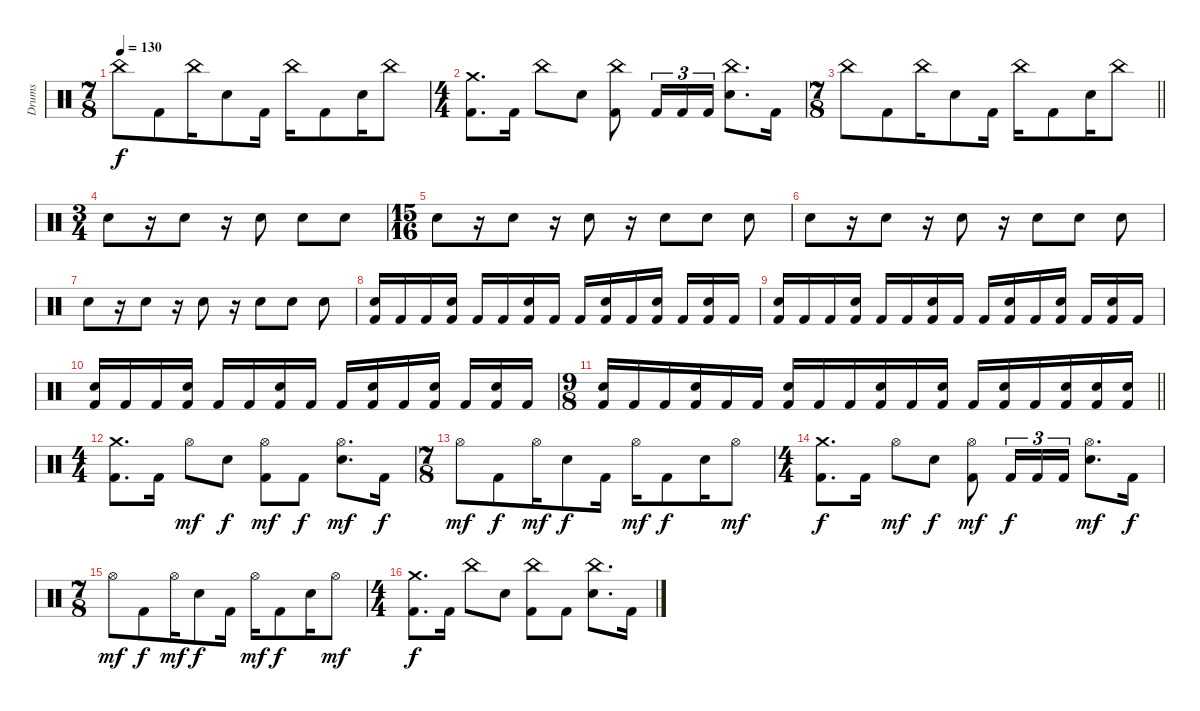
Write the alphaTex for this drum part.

\track ("Drums" "Drums") {instrument percussion}
\staff {score}
\articulation defaults
\ts (7 8)
\tempo 130
\clef neutral
\ks c "China (hit)".8{dy f} "Kick (hit) 2".8 "China (hit)".16 "Electric Snare (hit)".8 "Kick (hit) 2".16 "China (hit)".16 "Kick (hit) 2".8 "Electric Snare (hit)".16 "China (hit)".8
|
\ts (4 4)
("Kick (hit) 2" "Crash medium (hit)").8{d} "Kick (hit) 2".16 "China (hit)".8 "Electric Snare (hit)".8 ("Kick (hit) 2" "China (hit)").8 "Kick (hit) 2".16{tu (3 2)} "Kick (hit) 2".16{tu (3 2)} "Kick (hit) 2".16{tu (3 2)} ("China (hit)" "Electric Snare (hit)").8{d} "Kick (hit) 2".16 |
\ts (7 8)
\barLineRight lightlight "China (hit)".8 "Kick (hit) 2".8 "China (hit)".16 "Electric Snare (hit)".8 "Kick (hit) 2".16 "China (hit)".16 "Kick (hit) 2".8 "Electric Snare (hit)".16 "China (hit)".8
|
\ts (3 4)
"Electric Snare (hit)".8 r.16 "Electric Snare (hit)".8 r.16 "Electric Snare (hit)".8 "Electric Snare (hit)".8 "Electric Snare (hit)".8 |
\ts (15 16)
"Electric Snare (hit)".8 r.16 "Electric Snare (hit)".8 r.16 "Electric Snare (hit)".8 r.16 "Electric Snare (hit)".8 "Electric Snare (hit)".8 "Electric Snare (hit)".8 |
"Electric Snare (hit)".8 r.16 "Electric Snare (hit)".8 r.16 "Electric Snare (hit)".8 r.16 "Electric Snare (hit)".8 "Electric Snare (hit)".8 "Electric Snare (hit)".8 |
"Electric Snare (hit)".8 r.16 "Electric Snare (hit)".8 r.16 "Electric Snare (hit)".8 r.16 "Electric Snare (hit)".8 "Electric Snare (hit)".8 "Electric Snare (hit)".8 |
("Kick (hit) 2" "Electric Snare (hit)").16 "Kick (hit) 2".16 "Kick (hit) 2".16 ("Kick (hit) 2" "Electric Snare (hit)").16 "Kick (hit) 2".16 "Kick (hit) 2".16 ("Kick (hit) 2" "Electric Snare (hit)").16 "Kick (hit) 2".16 "Kick (hit) 2".16 ("Kick (hit) 2" "Electric Snare (hit)").16 "Kick (hit) 2".16 ("Kick (hit) 2" "Electric Snare (hit)").16 "Kick (hit) 2".16 ("Kick (hit) 2" "Electric Snare (hit)").16 "Kick (hit) 2".16 |
("Kick (hit) 2" "Electric Snare (hit)").16 "Kick (hit) 2".16 "Kick (hit) 2".16 ("Kick (hit) 2" "Electric Snare (hit)").16 "Kick (hit) 2".16 "Kick (hit) 2".16 ("Kick (hit) 2" "Electric Snare (hit)").16 "Kick (hit) 2".16 "Kick (hit) 2".16 ("Kick (hit) 2" "Electric Snare (hit)").16 "Kick (hit) 2".16 ("Kick (hit) 2" "Electric Snare (hit)").16 "Kick (hit) 2".16 ("Kick (hit) 2" "Electric Snare (hit)").16 "Kick (hit) 2".16 |
("Kick (hit) 2" "Electric Snare (hit)").16 "Kick (hit) 2".16 "Kick (hit) 2".16 ("Kick (hit) 2" "Electric Snare (hit)").16 "Kick (hit) 2".16 "Kick (hit) 2".16 ("Kick (hit) 2" "Electric Snare (hit)").16 "Kick (hit) 2".16 "Kick (hit) 2".16 ("Kick (hit) 2" "Electric Snare (hit)").16 "Kick (hit) 2".16 ("Kick (hit) 2" "Electric Snare (hit)").16 "Kick (hit) 2".16 ("Kick (hit) 2" "Electric Snare (hit)").16 "Kick (hit) 2".16 |
\ts (9 8)
\barLineRight lightlight
("Kick (hit) 2" "Electric Snare (hit)").16 "Kick (hit) 2".16 "Kick (hit) 2".16 ("Kick (hit) 2" "Electric Snare (hit)").16 "Kick (hit) 2".16 "Kick (hit) 2".16 ("Kick (hit) 2" "Electric Snare (hit)").16 "Kick (hit) 2".16 "Kick (hit) 2".16 ("Kick (hit) 2" "Electric Snare (hit)").16 "Kick (hit) 2".16 ("Kick (hit) 2" "Electric Snare (hit)").16 "Kick (hit) 2".16 ("Kick (hit) 2" "Electric Snare (hit)").16 "Kick (hit) 2".16 ("Kick (hit) 2" "Electric Snare (hit)").16 ("Kick (hit) 2" "Electric Snare (hit)").16 ("Kick (hit) 2" "Electric Snare (hit)").16 |
\ts (4 4)
("Kick (hit) 2" "Crash medium (hit)").8{d} "Kick (hit) 2".16 "Hi-Hat (open)".8{dy mf} "Electric Snare (hit)".8{dy f} ("Kick (hit) 2" "Hi-Hat (open)").8{dy mf} "Kick (hit) 2".8{dy f} ("Hi-Hat (open)" "Electric Snare (hit)").8{d dy mf} "Kick (hit) 2".16{dy f} |
\ts (7 8)
"Hi-Hat (open)".8{dy mf} "Kick (hit) 2".8{dy f} "Hi-Hat (open)".16{dy mf} "Electric Snare (hit)".8{dy f} "Kick (hit) 2".16 "Hi-Hat (open)".16{dy mf} "Kick (hit) 2".8{dy f} "Electric Snare (hit)".16 "Hi-Hat (open)".8{dy mf} |
\ts (4 4)
("Kick (hit) 2" "Crash medium (hit)").8{d dy f} "Kick (hit) 2".16 "Hi-Hat (open)".8{dy mf} "Electric Snare (hit)".8{dy f} ("Kick (hit) 2" "Hi-Hat (open)").8{dy mf} "Kick (hit) 2".16{tu (3 2) dy f} "Kick (hit) 2".16{tu (3 2)} "Kick (hit) 2".16{tu (3 2)} ("Hi-Hat (open)" "Electric Snare (hit)").8{d dy mf} "Kick (hit) 2".16{dy f} |
\ts (7 8)
"Hi-Hat (open)".8{dy mf} "Kick (hit) 2".8{dy f} "Hi-Hat (open)".16{dy mf} "Electric Snare (hit)".8{dy f} "Kick (hit) 2".16 "Hi-Hat (open)".16{dy mf} "Kick (hit) 2".8{dy f} "Electric Snare (hit)".16 "Hi-Hat (open)".8{dy mf} |
\ts (4 4)
("Kick (hit) 2" "Crash medium (hit)").8{d dy f} "Kick (hit) 2".16 "China (hit)".8 "Electric Snare (hit)".8 ("Kick (hit) 2" "China (hit)").8 "Kick (hit) 2".8 ("China (hit)" "Electric Snare (hit)").8{d} "Kick (hit) 2".16
